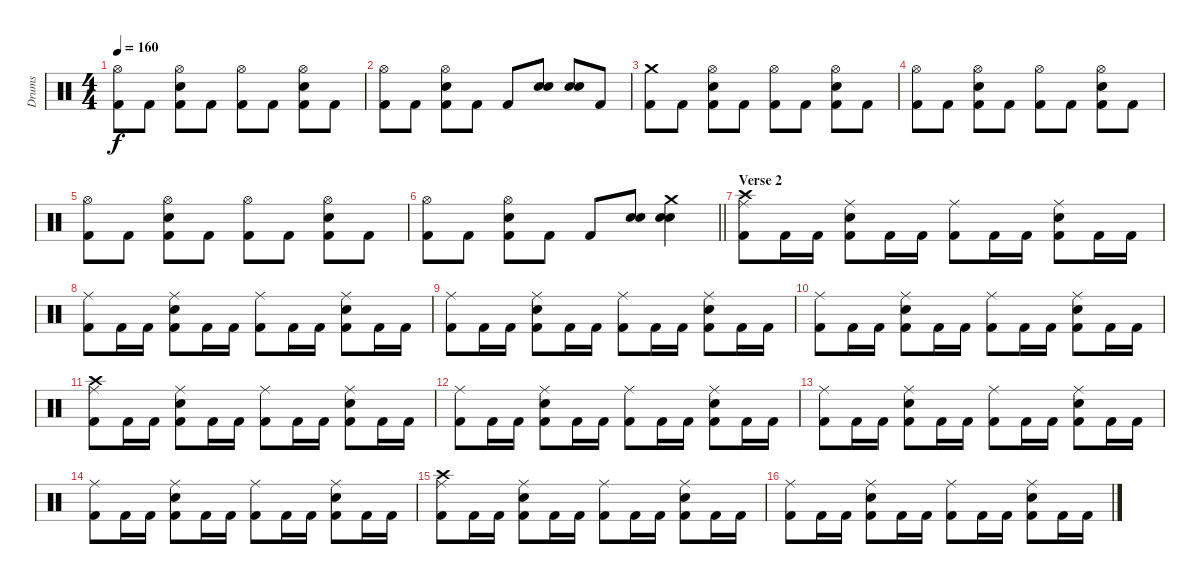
\track ("Drums" "Drums") {instrument percussion}
\staff {score}
\articulation defaults
\ts (4 4)
\tempo 160
\clef neutral
\ks c
("Hi-Hat (open)" "Kick (hit) 2").8{dy f} "Kick (hit) 2".8 ("Hi-Hat (open)" "Snare (hit) 2" "Kick (hit) 2").8 "Kick (hit) 2".8 ("Hi-Hat (open)" "Kick (hit) 2").8 "Kick (hit) 2".8 ("Hi-Hat (open)" "Snare (hit) 2" "Kick (hit) 2").8 "Kick (hit) 2".8 |
("Hi-Hat (open)" "Kick (hit) 2").8 "Kick (hit) 2".8 ("Hi-Hat (open)" "Snare (hit) 2" "Kick (hit) 2").8 "Kick (hit) 2".8 "Kick (hit) 2".8 ("Hand Clap (hit)" "Snare (hit) 2").8 ("Hand Clap (hit)" "Snare (hit) 2").8 "Kick (hit) 2".8 |
("Crash medium (hit)" "Kick (hit) 2").8 "Kick (hit) 2".8 ("Hi-Hat (open)" "Snare (hit) 2" "Kick (hit) 2").8 "Kick (hit) 2".8 ("Hi-Hat (open)" "Kick (hit) 2").8 "Kick (hit) 2".8 ("Hi-Hat (open)" "Snare (hit) 2" "Kick (hit) 2").8 "Kick (hit) 2".8 |
("Hi-Hat (open)" "Kick (hit) 2").8 "Kick (hit) 2".8 ("Hi-Hat (open)" "Snare (hit) 2" "Kick (hit) 2").8 "Kick (hit) 2".8 ("Hi-Hat (open)" "Kick (hit) 2").8 "Kick (hit) 2".8 ("Hi-Hat (open)" "Snare (hit) 2" "Kick (hit) 2").8 "Kick (hit) 2".8 |
("Hi-Hat (open)" "Kick (hit) 2").8 "Kick (hit) 2".8 ("Hi-Hat (open)" "Snare (hit) 2" "Kick (hit) 2").8 "Kick (hit) 2".8 ("Hi-Hat (open)" "Kick (hit) 2").8 "Kick (hit) 2".8 ("Hi-Hat (open)" "Snare (hit) 2" "Kick (hit) 2").8 "Kick (hit) 2".8 |
\barLineRight lightlight
("Hi-Hat (open)" "Kick (hit) 2").8 "Kick (hit) 2".8 ("Hi-Hat (open)" "Snare (hit) 2" "Kick (hit) 2").8 "Kick (hit) 2".8 "Kick (hit) 2".8 ("Hand Clap (hit)" "Snare (hit) 2").8 ("Crash medium (hit)" "Hand Clap (hit)" "Snare (hit) 2").4 |
\section ("" "Verse 2")
("Crash high (hit)" "Ride (middle)" "Kick (hit) 2").8 "Kick (hit) 2".16 "Kick (hit) 2".16 ("Ride (middle)" "Snare (hit) 2" "Kick (hit) 2").8 "Kick (hit) 2".16 "Kick (hit) 2".16 ("Ride (middle)" "Kick (hit) 2").8 "Kick (hit) 2".16 "Kick (hit) 2".16 ("Ride (middle)" "Snare (hit) 2" "Kick (hit) 2").8 "Kick (hit) 2".16 "Kick (hit) 2".16 |
("Ride (middle)" "Kick (hit) 2").8 "Kick (hit) 2".16 "Kick (hit) 2".16 ("Ride (middle)" "Snare (hit) 2" "Kick (hit) 2").8 "Kick (hit) 2".16 "Kick (hit) 2".16 ("Ride (middle)" "Kick (hit) 2").8 "Kick (hit) 2".16 "Kick (hit) 2".16 ("Ride (middle)" "Snare (hit) 2" "Kick (hit) 2").8 "Kick (hit) 2".16 "Kick (hit) 2".16 |
("Ride (middle)" "Kick (hit) 2").8 "Kick (hit) 2".16 "Kick (hit) 2".16 ("Ride (middle)" "Snare (hit) 2" "Kick (hit) 2").8 "Kick (hit) 2".16 "Kick (hit) 2".16 ("Ride (middle)" "Kick (hit) 2").8 "Kick (hit) 2".16 "Kick (hit) 2".16 ("Ride (middle)" "Snare (hit) 2" "Kick (hit) 2").8 "Kick (hit) 2".16 "Kick (hit) 2".16 |
("Ride (middle)" "Kick (hit) 2").8 "Kick (hit) 2".16 "Kick (hit) 2".16 ("Ride (middle)" "Snare (hit) 2" "Kick (hit) 2").8 "Kick (hit) 2".16 "Kick (hit) 2".16 ("Ride (middle)" "Kick (hit) 2").8 "Kick (hit) 2".16 "Kick (hit) 2".16 ("Ride (middle)" "Snare (hit) 2" "Kick (hit) 2").8 "Kick (hit) 2".16 "Kick (hit) 2".16 |
("Crash high (hit)" "Ride (middle)" "Kick (hit) 2").8 "Kick (hit) 2".16 "Kick (hit) 2".16 ("Ride (middle)" "Snare (hit) 2" "Kick (hit) 2").8 "Kick (hit) 2".16 "Kick (hit) 2".16 ("Ride (middle)" "Kick (hit) 2").8 "Kick (hit) 2".16 "Kick (hit) 2".16 ("Ride (middle)" "Snare (hit) 2" "Kick (hit) 2").8 "Kick (hit) 2".16 "Kick (hit) 2".16 |
("Ride (middle)" "Kick (hit) 2").8 "Kick (hit) 2".16 "Kick (hit) 2".16 ("Ride (middle)" "Snare (hit) 2" "Kick (hit) 2").8 "Kick (hit) 2".16 "Kick (hit) 2".16 ("Ride (middle)" "Kick (hit) 2").8 "Kick (hit) 2".16 "Kick (hit) 2".16 ("Ride (middle)" "Snare (hit) 2" "Kick (hit) 2").8 "Kick (hit) 2".16 "Kick (hit) 2".16 |
("Ride (middle)" "Kick (hit) 2").8 "Kick (hit) 2".16 "Kick (hit) 2".16 ("Ride (middle)" "Snare (hit) 2" "Kick (hit) 2").8 "Kick (hit) 2".16 "Kick (hit) 2".16 ("Ride (middle)" "Kick (hit) 2").8 "Kick (hit) 2".16 "Kick (hit) 2".16 ("Ride (middle)" "Snare (hit) 2" "Kick (hit) 2").8 "Kick (hit) 2".16 "Kick (hit) 2".16 |
("Ride (middle)" "Kick (hit) 2").8 "Kick (hit) 2".16 "Kick (hit) 2".16 ("Ride (middle)" "Snare (hit) 2" "Kick (hit) 2").8 "Kick (hit) 2".16 "Kick (hit) 2".16 ("Ride (middle)" "Kick (hit) 2").8 "Kick (hit) 2".16 "Kick (hit) 2".16 ("Ride (middle)" "Snare (hit) 2" "Kick (hit) 2").8 "Kick (hit) 2".16 "Kick (hit) 2".16 |
("Crash high (hit)" "Ride (middle)" "Kick (hit) 2").8 "Kick (hit) 2".16 "Kick (hit) 2".16 ("Ride (middle)" "Snare (hit) 2" "Kick (hit) 2").8 "Kick (hit) 2".16 "Kick (hit) 2".16 ("Ride (middle)" "Kick (hit) 2").8 "Kick (hit) 2".16 "Kick (hit) 2".16 ("Ride (middle)" "Snare (hit) 2" "Kick (hit) 2").8 "Kick (hit) 2".16 "Kick (hit) 2".16 |
("Ride (middle)" "Kick (hit) 2").8 "Kick (hit) 2".16 "Kick (hit) 2".16 ("Ride (middle)" "Snare (hit) 2" "Kick (hit) 2").8 "Kick (hit) 2".16 "Kick (hit) 2".16 ("Ride (middle)" "Kick (hit) 2").8 "Kick (hit) 2".16 "Kick (hit) 2".16 ("Ride (middle)" "Snare (hit) 2" "Kick (hit) 2").8 "Kick (hit) 2".16 "Kick (hit) 2".16
